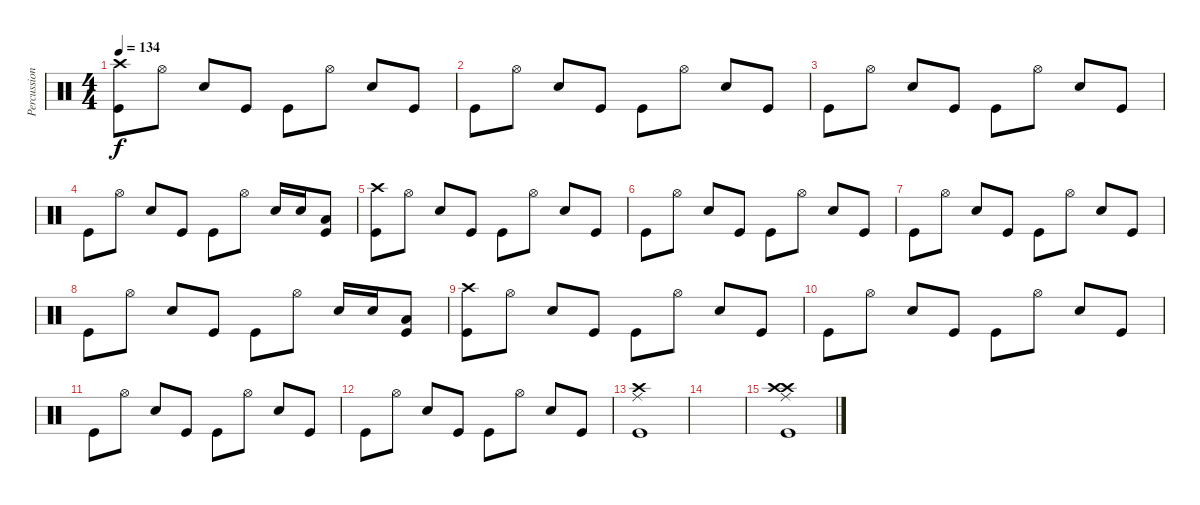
\track ("Percussion" "Percussion") {instrument percussion}
\staff {score}
\articulation defaults
\ts (4 4)
\tempo 134
\clef neutral
\ks c
("Crash high (hit)" "Kick (hit)").8{dy f} "Hi-Hat (open)".8 "Electric Snare (hit)".8 "Kick (hit)".8 "Kick (hit)".8 "Hi-Hat (open)".8 "Electric Snare (hit)".8 "Kick (hit)".8 |
"Kick (hit)".8 "Hi-Hat (open)".8 "Electric Snare (hit)".8 "Kick (hit)".8 "Kick (hit)".8 "Hi-Hat (open)".8 "Electric Snare (hit)".8 "Kick (hit)".8 |
"Kick (hit)".8 "Hi-Hat (open)".8 "Electric Snare (hit)".8 "Kick (hit)".8 "Kick (hit)".8 "Hi-Hat (open)".8 "Electric Snare (hit)".8 "Kick (hit)".8 |
"Kick (hit)".8 "Hi-Hat (open)".8 "Electric Snare (hit)".8 "Kick (hit)".8 "Kick (hit)".8 "Hi-Hat (open)".8 "Electric Snare (hit)".16 "Electric Snare (hit)".16 ("Low Tom (hit)" "Kick (hit)").8 |
("Crash high (hit)" "Kick (hit)").8 "Hi-Hat (open)".8 "Electric Snare (hit)".8 "Kick (hit)".8 "Kick (hit)".8 "Hi-Hat (open)".8 "Electric Snare (hit)".8 "Kick (hit)".8 |
"Kick (hit)".8 "Hi-Hat (open)".8 "Electric Snare (hit)".8 "Kick (hit)".8 "Kick (hit)".8 "Hi-Hat (open)".8 "Electric Snare (hit)".8 "Kick (hit)".8 |
"Kick (hit)".8 "Hi-Hat (open)".8 "Electric Snare (hit)".8 "Kick (hit)".8 "Kick (hit)".8 "Hi-Hat (open)".8 "Electric Snare (hit)".8 "Kick (hit)".8 |
"Kick (hit)".8 "Hi-Hat (open)".8 "Electric Snare (hit)".8 "Kick (hit)".8 "Kick (hit)".8 "Hi-Hat (open)".8 "Electric Snare (hit)".16 "Electric Snare (hit)".16 ("Low Tom (hit)" "Kick (hit)").8 |
("Crash high (hit)" "Kick (hit)").8 "Hi-Hat (open)".8 "Electric Snare (hit)".8 "Kick (hit)".8 "Kick (hit)".8 "Hi-Hat (open)".8 "Electric Snare (hit)".8 "Kick (hit)".8 |
"Kick (hit)".8 "Hi-Hat (open)".8 "Electric Snare (hit)".8 "Kick (hit)".8 "Kick (hit)".8 "Hi-Hat (open)".8 "Electric Snare (hit)".8 "Kick (hit)".8 |
"Kick (hit)".8 "Hi-Hat (open)".8 "Electric Snare (hit)".8 "Kick (hit)".8 "Kick (hit)".8 "Hi-Hat (open)".8 "Electric Snare (hit)".8 "Kick (hit)".8 |
"Kick (hit)".8 "Hi-Hat (open)".8 "Electric Snare (hit)".8 "Kick (hit)".8 "Kick (hit)".8 "Hi-Hat (open)".8 "Electric Snare (hit)".8 "Kick (hit)".8 |
("Crash high (hit)" "Ride (middle)" "Kick (hit)").1 |
|
("Crash high (hit)" "Crash high (hit)" "Ride (middle)" "Kick (hit)").1
